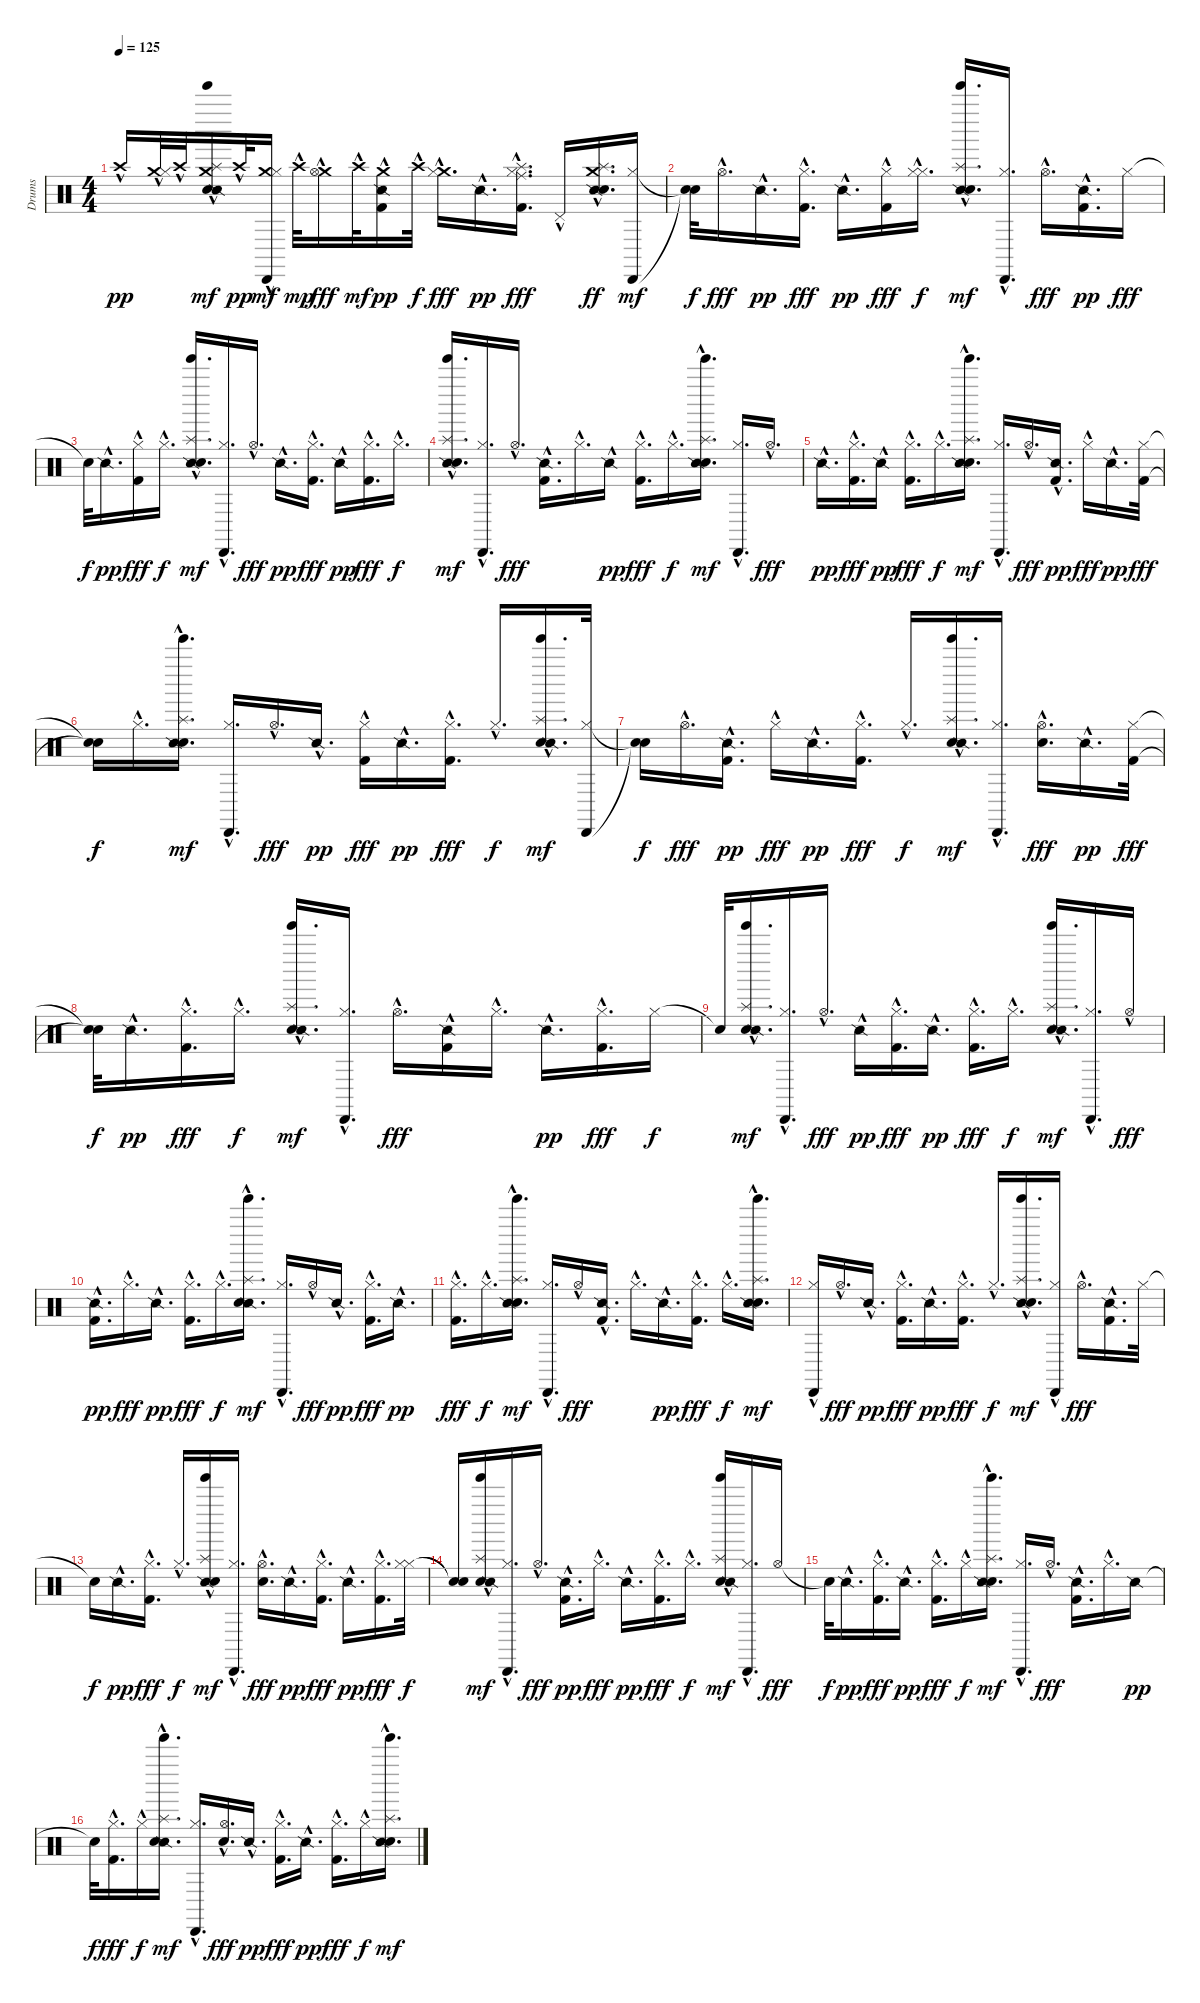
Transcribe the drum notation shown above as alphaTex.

\track ("Drums" "Drums") {instrument percussion}
\staff {score}
\articulation defaults
\ts (4 4)
\tempo 125
\clef neutral
\ks c "Crash high (hit)"{hac}.16{dy pp}
("Crash medium (hit)"{hac} "Hi-Hat (closed)"{hac}).32 "Crash high (hit)"{hac}.32 ("Crash medium (hit)"{hac} "Hand Clap (hit)"{hac} "Snare (side stick) 2"{hac} "Tinkle Bell (hit)"{hac} "Splash (hit)"{hac}).16{dy mf} "Crash high (hit)"{hac}.32{dy pp} ("Crash medium (hit)"{hac} "Hi-Hat (closed)"{hac} "Cabasa (hit)"{hac}).16{dy mf} "Crash high (hit)"{hac}.32{dy mp} ("Crash medium (hit)"{hac} "Hi-Hat (open)"{hac}).16{dy fff} "Crash high (hit)"{hac}.32{dy mf} ("Crash medium (hit)"{hac} "Kick (hit) 2"{hac} "Snare (side stick) 2"{hac}).16{dy pp} "Crash high (hit)"{hac}.32{dy f} ("Crash medium (hit)"{hac} "Hi-Hat (closed)"{hac}).16{d dy fff} "Snare (side stick) 2"{hac}.16{d dy pp} ("Splash (hit)"{hac} "Hi-Hat (closed)"{hac} "Kick (hit) 2"{hac} "Ride (middle)"{hac}).16{d dy fff} "Pedal Hi-Hat (hit)"{hac}.16 ("Snare (side stick) 2"{hac} "Hand Clap (hit)"{hac} "Splash (hit)"{hac} "Crash medium (hit)"{hac}).16{d dy ff} ("Cabasa (hit)" "Hi-Hat (closed)").16{dy mf} |
("Snare (hit)"{t} "Snare (hit)"{t}).32{dy f} "Hi-Hat (open)"{hac}.16{d dy fff} "Snare (side stick) 2"{hac}.16{d dy pp} ("Hi-Hat (closed)"{hac} "Kick (hit) 2"{hac}).16{d dy fff} "Snare (side stick) 2"{hac}.16{d dy pp} ("Hi-Hat (closed)"{hac} "Kick (hit) 2"{hac}).16{dy fff} ("Hi-Hat (closed)"{hac} "Hi-Hat (closed)"{hac}).16{d dy f} ("Snare (side stick) 2"{hac} "Hand Clap (hit)"{hac} "Tinkle Bell (hit)"{hac} "Splash (hit)"{hac}).16{d dy mf} ("Cabasa (hit)"{hac} "Hi-Hat (closed)"{hac}).16{d} "Hi-Hat (open)"{hac}.16{d dy fff} ("Kick (hit) 2"{hac} "Snare (side stick) 2"{hac}).16{d dy pp} "Hi-Hat (closed)".16{dy fff} |
"Snare (hit)"{t}.32{dy f} "Snare (side stick) 2"{hac}.16{d dy pp} ("Hi-Hat (closed)"{hac} "Kick (hit) 2"{hac}).16{dy fff} "Hi-Hat (closed)"{hac}.16{d dy f} ("Snare (side stick) 2"{hac} "Hand Clap (hit)"{hac} "Tinkle Bell (hit)"{hac} "Splash (hit)"{hac}).16{d dy mf} ("Cabasa (hit)"{hac} "Hi-Hat (closed)"{hac}).16{d} "Hi-Hat (open)"{hac}.16{d dy fff} "Snare (side stick) 2"{hac}.16{d dy pp} ("Kick (hit) 2"{hac} "Hi-Hat (closed)"{hac}).16{d dy fff} "Snare (side stick) 2"{hac}.16{dy pp} ("Hi-Hat (closed)"{hac} "Kick (hit) 2"{hac}).16{d dy fff} "Hi-Hat (closed)"{hac}.16{d dy f} |
("Snare (side stick) 2"{hac} "Hand Clap (hit)"{hac} "Tinkle Bell (hit)"{hac} "Splash (hit)"{hac}).16{d dy mf} ("Cabasa (hit)"{hac} "Hi-Hat (closed)"{hac}).16{d} "Hi-Hat (open)"{hac}.16{d dy fff} ("Snare (side stick) 2"{hac} "Kick (hit) 2"{hac}).16{d} "Hi-Hat (closed)"{hac}.16{d} "Snare (side stick) 2"{hac}.16{dy pp} ("Hi-Hat (closed)"{hac} "Kick (hit) 2"{hac}).16{d dy fff} "Hi-Hat (closed)"{hac}.16{d dy f} ("Hand Clap (hit)"{hac} "Snare (side stick) 2"{hac} "Tinkle Bell (hit)"{hac} "Splash (hit)"{hac}).16{d dy mf} ("Hi-Hat (closed)"{hac} "Cabasa (hit)"{hac}).16{d} "Hi-Hat (open)"{hac}.16{d dy fff} |
"Snare (side stick) 2"{hac}.16{d dy pp} ("Kick (hit) 2"{hac} "Hi-Hat (closed)"{hac}).16{d dy fff} "Snare (side stick) 2"{hac}.16{dy pp} ("Kick (hit) 2"{hac} "Hi-Hat (closed)"{hac}).16{d dy fff} "Hi-Hat (closed)"{hac}.16{d dy f} ("Hand Clap (hit)"{hac} "Snare (side stick) 2"{hac} "Tinkle Bell (hit)"{hac} "Splash (hit)"{hac}).16{d dy mf} ("Cabasa (hit)"{hac} "Hi-Hat (closed)"{hac}).16{d} "Hi-Hat (open)"{hac}.16{d dy fff} ("Kick (hit) 2"{hac} "Snare (side stick) 2"{hac}).16{d dy pp} "Hi-Hat (closed)"{hac}.16{dy fff} "Snare (side stick) 2"{hac}.16{d dy pp} ("Hi-Hat (closed)" "Kick (hit) 2").32{dy fff} |
("Snare (hit)"{t} "Snare (hit)"{t}).16{dy f} "Hi-Hat (closed)"{hac}.16{d} ("Hand Clap (hit)"{hac} "Snare (side stick) 2"{hac} "Tinkle Bell (hit)"{hac} "Splash (hit)"{hac}).16{d dy mf} ("Hi-Hat (closed)"{hac} "Cabasa (hit)"{hac}).16{d} "Hi-Hat (open)"{hac}.16{d dy fff} "Snare (side stick) 2"{hac}.16{d dy pp} ("Kick (hit) 2"{hac} "Hi-Hat (closed)"{hac}).16{dy fff} "Snare (side stick) 2"{hac}.16{d dy pp} ("Kick (hit) 2"{hac} "Hi-Hat (closed)"{hac}).16{d dy fff} "Hi-Hat (closed)"{hac}.16{d dy f} ("Hand Clap (hit)"{hac} "Snare (side stick) 2"{hac} "Tinkle Bell (hit)"{hac} "Splash (hit)"{hac}).16{d dy mf} ("Hi-Hat (closed)" "Cabasa (hit)").32 |
("Snare (hit)"{t} "Snare (hit)"{t}).16{dy f} "Hi-Hat (open)"{hac}.16{d dy fff} ("Kick (hit) 2"{hac} "Snare (side stick) 2"{hac}).16{d dy pp} "Hi-Hat (closed)"{hac}.16{dy fff} "Snare (side stick) 2"{hac}.16{d dy pp} ("Hi-Hat (closed)"{hac} "Kick (hit) 2"{hac}).16{d dy fff} "Hi-Hat (closed)"{hac}.16{d dy f} ("Hand Clap (hit)"{hac} "Snare (side stick) 2"{hac} "Tinkle Bell (hit)"{hac} "Splash (hit)"{hac}).16{d dy mf} ("Hi-Hat (closed)"{hac} "Cabasa (hit)"{hac}).16{d} ("Hi-Hat (open)"{hac} "Hand Clap (hit)"{hac}).16{d dy fff} "Snare (side stick) 2"{hac}.16{d dy pp} ("Kick (hit) 2" "Hi-Hat (closed)").32{dy fff} |
("Snare (hit)"{t} "Snare (hit)"{t}).32{dy f} "Snare (side stick) 2"{hac}.16{d dy pp} ("Hi-Hat (closed)"{hac} "Kick (hit) 2"{hac}).16{d dy fff} "Hi-Hat (closed)"{hac}.16{d dy f} ("Hand Clap (hit)"{hac} "Snare (side stick) 2"{hac} "Tinkle Bell (hit)"{hac} "Splash (hit)"{hac}).16{d dy mf} ("Hi-Hat (closed)"{hac} "Cabasa (hit)"{hac}).16{d} "Hi-Hat (open)"{hac}.16{d dy fff} ("Snare (side stick) 2"{hac} "Kick (hit) 2"{hac}).16 "Hi-Hat (closed)"{hac}.16{d} "Snare (side stick) 2"{hac}.16{d dy pp} ("Hi-Hat (closed)"{hac} "Kick (hit) 2"{hac}).16{d dy fff} "Hi-Hat (closed)".16{dy f} |
"Snare (hit)"{t}.32 ("Hand Clap (hit)"{hac} "Snare (side stick) 2"{hac} "Tinkle Bell (hit)"{hac} "Splash (hit)"{hac}).16{d dy mf} ("Cabasa (hit)"{hac} "Hi-Hat (closed)"{hac}).16{d} "Hi-Hat (open)"{hac}.16{d dy fff} "Snare (side stick) 2"{hac}.16{dy pp} ("Kick (hit) 2"{hac} "Hi-Hat (closed)"{hac}).16{d dy fff} "Snare (side stick) 2"{hac}.16{d dy pp} ("Kick (hit) 2"{hac} "Hi-Hat (closed)"{hac}).16{d dy fff} "Hi-Hat (closed)"{hac}.16{d dy f} ("Hand Clap (hit)"{hac} "Snare (side stick) 2"{hac} "Tinkle Bell (hit)"{hac} "Splash (hit)"{hac}).16{d dy mf} ("Hi-Hat (closed)"{hac} "Cabasa (hit)"{hac}).16{d} "Hi-Hat (open)"{hac}.16{dy fff} |
("Kick (hit) 2"{hac} "Snare (side stick) 2"{hac}).16{d dy pp} "Hi-Hat (closed)"{hac}.16{d dy fff} "Snare (side stick) 2"{hac}.16{d dy pp} ("Kick (hit) 2"{hac} "Hi-Hat (closed)"{hac}).16{d dy fff} "Hi-Hat (closed)"{hac}.16{d dy f} ("Snare (side stick) 2"{hac} "Hand Clap (hit)"{hac} "Tinkle Bell (hit)"{hac} "Splash (hit)"{hac}).16{d dy mf} ("Hi-Hat (closed)"{hac} "Cabasa (hit)"{hac}).16{d} "Hi-Hat (open)"{hac}.16{dy fff} "Snare (side stick) 2"{hac}.16{d dy pp} ("Hi-Hat (closed)"{hac} "Kick (hit) 2"{hac}).16{d dy fff} "Snare (side stick) 2"{hac}.16{d dy pp} |
("Kick (hit) 2"{hac} "Hi-Hat (closed)"{hac}).16{d dy fff} "Hi-Hat (closed)"{hac}.16{d dy f} ("Hand Clap (hit)"{hac} "Snare (side stick) 2"{hac} "Tinkle Bell (hit)"{hac} "Splash (hit)"{hac}).16{d dy mf} ("Hi-Hat (closed)"{hac} "Cabasa (hit)"{hac}).16{d} "Hi-Hat (open)"{hac}.16{dy fff} ("Snare (side stick) 2"{hac} "Kick (hit) 2"{hac}).16{d} "Hi-Hat (closed)"{hac}.16{d} "Snare (side stick) 2"{hac}.16{d dy pp} ("Hi-Hat (closed)"{hac} "Kick (hit) 2"{hac}).16{d dy fff} "Hi-Hat (closed)"{hac}.16{d dy f} ("Hand Clap (hit)"{hac} "Snare (side stick) 2"{hac} "Tinkle Bell (hit)"{hac} "Splash (hit)"{hac}).16{d dy mf} |
("Cabasa (hit)"{hac} "Hi-Hat (closed)"{hac}).16 "Hi-Hat (open)"{hac}.16{d dy fff} "Snare (side stick) 2"{hac}.16{d dy pp} ("Kick (hit) 2"{hac} "Hi-Hat (closed)"{hac}).16{d dy fff} "Snare (side stick) 2"{hac}.16{d dy pp} ("Hi-Hat (closed)"{hac} "Kick (hit) 2"{hac}).16{d dy fff} "Hi-Hat (closed)"{hac}.16{d dy f} ("Snare (side stick) 2"{hac} "Hand Clap (hit)"{hac} "Tinkle Bell (hit)"{hac} "Splash (hit)"{hac}).16{d dy mf} ("Hi-Hat (closed)"{hac} "Cabasa (hit)"{hac}).16 "Hi-Hat (open)"{hac}.16{d dy fff} ("Snare (side stick) 2"{hac} "Kick (hit) 2"{hac}).16{d} "Hi-Hat (closed)".32 |
"Snare (hit)"{t}.16{dy f} "Snare (side stick) 2"{hac}.16{d dy pp} ("Hi-Hat (closed)"{hac} "Kick (hit) 2"{hac}).16{d dy fff} "Hi-Hat (closed)"{hac}.16{d dy f} ("Snare (side stick) 2"{hac} "Hand Clap (hit)"{hac} "Tinkle Bell (hit)"{hac} "Splash (hit)"{hac}).16{dy mf} ("Cabasa (hit)"{hac} "Hi-Hat (closed)"{hac}).16{d} ("Hi-Hat (open)"{hac} "Hand Clap (hit)"{hac}).16{d dy fff} "Snare (side stick) 2"{hac}.16{d dy pp} ("Hi-Hat (closed)"{hac} "Kick (hit) 2"{hac}).16{d dy fff} "Snare (side stick) 2"{hac}.16{d dy pp} ("Hi-Hat (closed)"{hac} "Kick (hit) 2"{hac}).16{d dy fff} ("Hi-Hat (closed)" "Hi-Hat (closed)").32{dy f} |
("Snare (hit)"{t} "Snare (hit)"{t}).16 ("Hand Clap (hit)"{hac} "Snare (side stick) 2"{hac} "Tinkle Bell (hit)"{hac} "Splash (hit)"{hac}).16{dy mf} ("Cabasa (hit)"{hac} "Hi-Hat (closed)"{hac}).16{d} "Hi-Hat (open)"{hac}.16{d dy fff} ("Kick (hit) 2"{hac} "Snare (side stick) 2"{hac}).16{d dy pp} "Hi-Hat (closed)"{hac}.16{d dy fff} "Snare (side stick) 2"{hac}.16{d dy pp} ("Hi-Hat (closed)"{hac} "Kick (hit) 2"{hac}).16{d dy fff} "Hi-Hat (closed)"{hac}.16{d dy f} ("Hand Clap (hit)"{hac} "Snare (side stick) 2"{hac} "Tinkle Bell (hit)"{hac} "Splash (hit)"{hac}).16{dy mf} ("Cabasa (hit)"{hac} "Hi-Hat (closed)"{hac}).16{d} "Hi-Hat (open)".16{dy fff} |
"Snare (hit)"{t}.32{dy f} "Snare (side stick) 2"{hac}.16{d dy pp} ("Kick (hit) 2"{hac} "Hi-Hat (closed)"{hac}).16{d dy fff} "Snare (side stick) 2"{hac}.16{d dy pp} ("Kick (hit) 2"{hac} "Hi-Hat (closed)"{hac}).16{d dy fff} "Hi-Hat (closed)"{hac}.16{dy f} ("Hand Clap (hit)"{hac} "Snare (side stick) 2"{hac} "Tinkle Bell (hit)"{hac} "Splash (hit)"{hac}).16{d dy mf} ("Cabasa (hit)"{hac} "Hi-Hat (closed)"{hac}).16{d} "Hi-Hat (open)"{hac}.16{d dy fff} ("Snare (side stick) 2"{hac} "Kick (hit) 2"{hac}).16{d} "Hi-Hat (closed)"{hac}.16{d} "Snare (side stick) 2".16{dy pp} |
"Snare (hit)"{t}.32{dy f} ("Hi-Hat (closed)"{hac} "Kick (hit) 2"{hac}).16{d dy fff} "Hi-Hat (closed)"{hac}.16{dy f} ("Snare (side stick) 2"{hac} "Hand Clap (hit)"{hac} "Tinkle Bell (hit)"{hac} "Splash (hit)"{hac}).16{d dy mf} ("Hi-Hat (closed)"{hac} "Cabasa (hit)"{hac}).16{d} ("Hand Clap (hit)"{hac} "Hi-Hat (open)"{hac}).16{d dy fff} "Snare (side stick) 2"{hac}.16{d dy pp} ("Hi-Hat (closed)"{hac} "Kick (hit) 2"{hac}).16{d dy fff} "Snare (side stick) 2"{hac}.16{d dy pp} ("Kick (hit) 2"{hac} "Hi-Hat (closed)"{hac}).16{d dy fff} "Hi-Hat (closed)"{hac}.16{dy f} ("Hand Clap (hit)"{hac} "Snare (side stick) 2"{hac} "Tinkle Bell (hit)"{hac} "Splash (hit)"{hac}).16{d dy mf}
